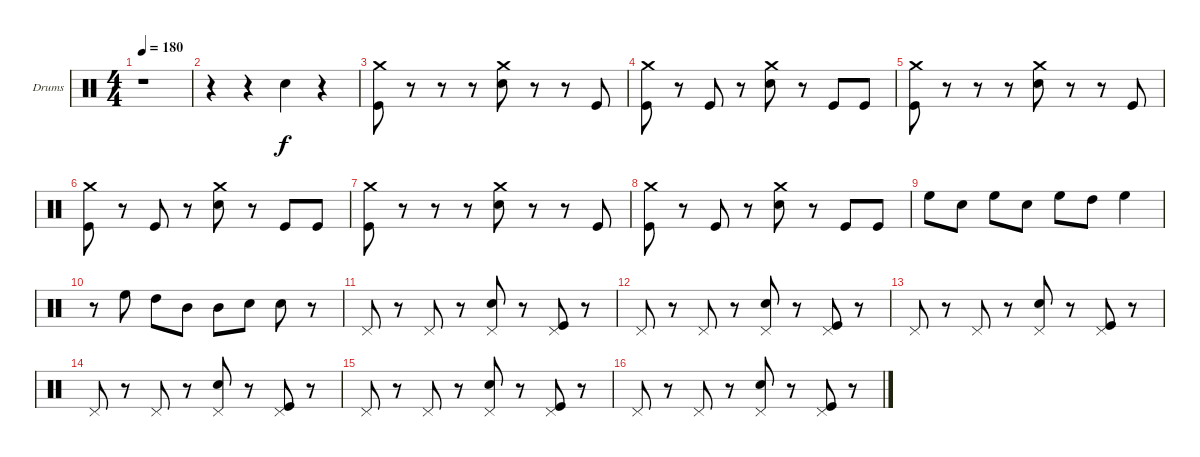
\defaultSystemsLayout 4
\bracketExtendMode groupsimilarinstruments
\firstSystemTrackNameOrientation horizontal
\otherSystemsTrackNameOrientation horizontal
\track ("Drumkit" "Drums") {instrument percussion}
\staff {score}
\articulation defaults
\ts (4 4)
\tempo 180
\clef neutral
\ks c
r.1{dy f} |
r.4 r.4 "Snare (hit) 2".4 r.4 |
("Crash medium (hit)" "Kick (hit)").8 r.8 r.8 r.8 ("Crash medium (hit)" "Snare (hit) 2").8 r.8 r.8 "Kick (hit)".8 |
("Crash medium (hit)" "Kick (hit)").8 r.8 "Kick (hit)".8 r.8 ("Crash medium (hit)" "Snare (hit) 2").8 r.8 "Kick (hit)".8 "Kick (hit)".8 |
("Crash medium (hit)" "Kick (hit)").8 r.8 r.8 r.8 ("Crash medium (hit)" "Snare (hit) 2").8 r.8 r.8 "Kick (hit)".8 |
("Crash medium (hit)" "Kick (hit)").8 r.8 "Kick (hit)".8 r.8 ("Crash medium (hit)" "Snare (hit) 2").8 r.8 "Kick (hit)".8 "Kick (hit)".8 |
("Crash medium (hit)" "Kick (hit)").8 r.8 r.8 r.8 ("Crash medium (hit)" "Snare (hit) 2").8 r.8 r.8 "Kick (hit)".8 |
("Crash medium (hit)" "Kick (hit)").8 r.8 "Kick (hit)".8 r.8 ("Crash medium (hit)" "Snare (hit) 2").8 r.8 "Kick (hit)".8 "Kick (hit)".8 |
"High Floor Tom (hit)".8 "Snare (hit) 2".8 "High Floor Tom (hit)".8 "Snare (hit) 2".8 "High Floor Tom (hit)".8 "High Tom (hit)".8 "High Floor Tom (hit)".4 |
r.8 "High Floor Tom (hit)".8 "High Tom (hit)".8 "Mid Tom (hit)".8 "Mid Tom (hit)".8 "Snare (hit) 2".8 "Snare (hit) 2".8 r.8 |
"Pedal Hi-Hat (hit)".8 r.8 "Pedal Hi-Hat (hit)".8 r.8 ("Pedal Hi-Hat (hit)" "Snare (hit) 2").8 r.8 ("Pedal Hi-Hat (hit)" "Kick (hit)").8 r.8 |
"Pedal Hi-Hat (hit)".8 r.8 "Pedal Hi-Hat (hit)".8 r.8 ("Pedal Hi-Hat (hit)" "Snare (hit) 2").8 r.8 ("Pedal Hi-Hat (hit)" "Kick (hit)").8 r.8 |
"Pedal Hi-Hat (hit)".8 r.8 "Pedal Hi-Hat (hit)".8 r.8 ("Pedal Hi-Hat (hit)" "Snare (hit) 2").8 r.8 ("Pedal Hi-Hat (hit)" "Kick (hit)").8 r.8 |
"Pedal Hi-Hat (hit)".8 r.8 "Pedal Hi-Hat (hit)".8 r.8 ("Pedal Hi-Hat (hit)" "Snare (hit) 2").8 r.8 ("Pedal Hi-Hat (hit)" "Kick (hit)").8 r.8 |
"Pedal Hi-Hat (hit)".8 r.8 "Pedal Hi-Hat (hit)".8 r.8 ("Pedal Hi-Hat (hit)" "Snare (hit) 2").8 r.8 ("Pedal Hi-Hat (hit)" "Kick (hit)").8 r.8 |
"Pedal Hi-Hat (hit)".8 r.8 "Pedal Hi-Hat (hit)".8 r.8 ("Pedal Hi-Hat (hit)" "Snare (hit) 2").8 r.8 ("Pedal Hi-Hat (hit)" "Kick (hit)").8 r.8
